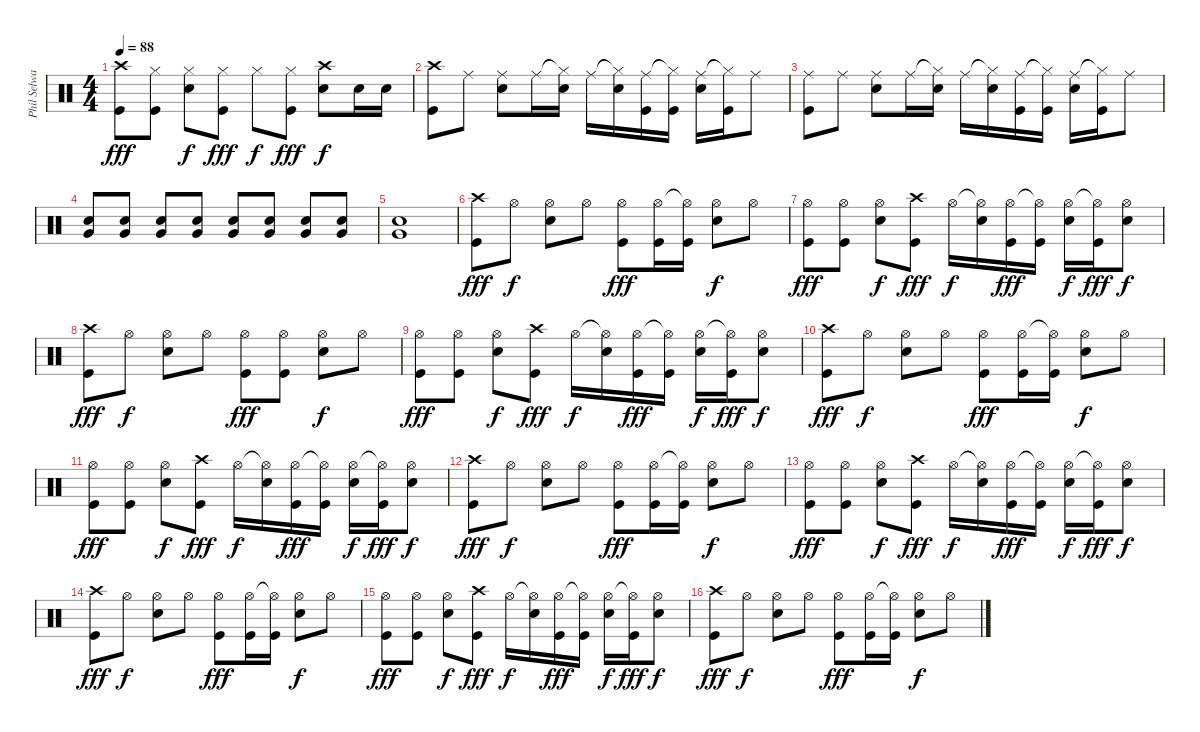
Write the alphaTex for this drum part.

\track ("Phil Selway" "Phil Selwa") {instrument percussion}
\staff {score}
\articulation defaults
\ts (4 4)
\tempo 88
\clef neutral
\ks c
("Crash high (hit)" "Kick (hit)").8{dy fff} ("Hi-Hat (closed)" "Kick (hit)").8 ("Hi-Hat (closed)" "Snare (hit) 2").8{dy f} ("Hi-Hat (closed)" "Kick (hit)").8{dy fff} "Hi-Hat (closed)".8{dy f} ("Hi-Hat (closed)" "Kick (hit)").8{dy fff} ("Crash high (hit)" "Snare (hit) 2").8{dy f} "Snare (hit) 2".16 "Snare (hit) 2".16 |
("Crash high (hit)" "Kick (hit)").8 "Ride (middle)".8 ("Ride (middle)" "Snare (hit) 2").8 "Ride (middle)".16 ("Hi-Hat (closed)"{t} "Snare (hit) 2").16 "Ride (middle)".16 ("Hi-Hat (closed)"{t} "Snare (hit) 2").16 ("Ride (middle)" "Kick (hit)").16 ("Hi-Hat (closed)"{t} "Kick (hit)").16 ("Ride (middle)" "Snare (hit) 2").16 ("Hi-Hat (closed)"{t} "Kick (hit)").16 "Ride (middle)".8 |
("Ride (middle)" "Kick (hit)").8 "Ride (middle)".8 ("Ride (middle)" "Snare (hit) 2").8 "Ride (middle)".16 ("Hi-Hat (closed)"{t} "Snare (hit) 2").16 "Ride (middle)".16 ("Hi-Hat (closed)"{t} "Snare (hit) 2").16 ("Ride (middle)" "Kick (hit)").16 ("Hi-Hat (closed)"{t} "Kick (hit)").16 ("Ride (middle)" "Snare (hit) 2").16 ("Hi-Hat (closed)"{t} "Kick (hit)").16 "Ride (middle)".8 |
("Snare (hit) 2" "Very Low Tom (hit)").8 ("Snare (hit) 2" "Very Low Tom (hit)").8 ("Snare (hit) 2" "Very Low Tom (hit)").8 ("Snare (hit) 2" "Very Low Tom (hit)").8 ("Snare (hit) 2" "Very Low Tom (hit)").8 ("Snare (hit) 2" "Very Low Tom (hit)").8 ("Snare (hit) 2" "Very Low Tom (hit)").8 ("Snare (hit) 2" "Very Low Tom (hit)").8 |
("Snare (hit) 2" "Very Low Tom (hit)").1 |
("Crash high (hit)" "Kick (hit)").8{dy fff} "Hi-Hat (open)".8{dy f} ("Hi-Hat (open)" "Snare (hit) 2").8 "Hi-Hat (open)".8 ("Hi-Hat (open)" "Kick (hit)").8{dy fff} ("Hi-Hat (open)" "Kick (hit)").16 ("Hi-Hat (open)"{t} "Kick (hit)").16 ("Hi-Hat (open)" "Snare (hit) 2").8{dy f} "Hi-Hat (open)".8 |
("Hi-Hat (open)" "Kick (hit)").8{dy fff} ("Hi-Hat (open)" "Kick (hit)").8 ("Hi-Hat (open)" "Snare (hit) 2").8{dy f} ("Crash high (hit)" "Kick (hit)").8{dy fff} "Hi-Hat (open)".16{dy f} ("Hi-Hat (open)"{t} "Snare (hit) 2").16 ("Hi-Hat (open)" "Kick (hit)").16{dy fff} ("Hi-Hat (open)"{t} "Kick (hit)").16 ("Hi-Hat (open)" "Snare (hit) 2").16{dy f} ("Hi-Hat (open)"{t} "Kick (hit)").16{dy fff} ("Hi-Hat (open)" "Snare (hit) 2").8{dy f} |
("Crash high (hit)" "Kick (hit)").8{dy fff} "Hi-Hat (open)".8{dy f} ("Hi-Hat (open)" "Snare (hit) 2").8 "Hi-Hat (open)".8 ("Hi-Hat (open)" "Kick (hit)").8{dy fff} ("Hi-Hat (open)" "Kick (hit)").8 ("Hi-Hat (open)" "Snare (hit) 2").8{dy f} "Hi-Hat (open)".8 |
("Hi-Hat (open)" "Kick (hit)").8{dy fff} ("Hi-Hat (open)" "Kick (hit)").8 ("Hi-Hat (open)" "Snare (hit) 2").8{dy f} ("Crash high (hit)" "Kick (hit)").8{dy fff} "Hi-Hat (open)".16{dy f} ("Hi-Hat (open)"{t} "Snare (hit) 2").16 ("Hi-Hat (open)" "Kick (hit)").16{dy fff} ("Hi-Hat (open)"{t} "Kick (hit)").16 ("Hi-Hat (open)" "Snare (hit) 2").16{dy f} ("Hi-Hat (open)"{t} "Kick (hit)").16{dy fff} ("Hi-Hat (open)" "Snare (hit) 2").8{dy f} |
("Crash high (hit)" "Kick (hit)").8{dy fff} "Hi-Hat (open)".8{dy f} ("Hi-Hat (open)" "Snare (hit) 2").8 "Hi-Hat (open)".8 ("Hi-Hat (open)" "Kick (hit)").8{dy fff} ("Hi-Hat (open)" "Kick (hit)").16 ("Hi-Hat (open)"{t} "Kick (hit)").16 ("Hi-Hat (open)" "Snare (hit) 2").8{dy f} "Hi-Hat (open)".8 |
("Hi-Hat (open)" "Kick (hit)").8{dy fff} ("Hi-Hat (open)" "Kick (hit)").8 ("Hi-Hat (open)" "Snare (hit) 2").8{dy f} ("Crash high (hit)" "Kick (hit)").8{dy fff} "Hi-Hat (open)".16{dy f} ("Hi-Hat (open)"{t} "Snare (hit) 2").16 ("Hi-Hat (open)" "Kick (hit)").16{dy fff} ("Hi-Hat (open)"{t} "Kick (hit)").16 ("Hi-Hat (open)" "Snare (hit) 2").16{dy f} ("Hi-Hat (open)"{t} "Kick (hit)").16{dy fff} ("Hi-Hat (open)" "Snare (hit) 2").8{dy f} |
("Crash high (hit)" "Kick (hit)").8{dy fff} "Hi-Hat (open)".8{dy f} ("Hi-Hat (open)" "Snare (hit) 2").8 "Hi-Hat (open)".8 ("Hi-Hat (open)" "Kick (hit)").8{dy fff} ("Hi-Hat (open)" "Kick (hit)").16 ("Hi-Hat (open)"{t} "Kick (hit)").16 ("Hi-Hat (open)" "Snare (hit) 2").8{dy f} "Hi-Hat (open)".8 |
("Hi-Hat (open)" "Kick (hit)").8{dy fff} ("Hi-Hat (open)" "Kick (hit)").8 ("Hi-Hat (open)" "Snare (hit) 2").8{dy f} ("Crash high (hit)" "Kick (hit)").8{dy fff} "Hi-Hat (open)".16{dy f} ("Hi-Hat (open)"{t} "Snare (hit) 2").16 ("Hi-Hat (open)" "Kick (hit)").16{dy fff} ("Hi-Hat (open)"{t} "Kick (hit)").16 ("Hi-Hat (open)" "Snare (hit) 2").16{dy f} ("Hi-Hat (open)"{t} "Kick (hit)").16{dy fff} ("Hi-Hat (open)" "Snare (hit) 2").8{dy f} |
("Crash high (hit)" "Kick (hit)").8{dy fff} "Hi-Hat (open)".8{dy f} ("Hi-Hat (open)" "Snare (hit) 2").8 "Hi-Hat (open)".8 ("Hi-Hat (open)" "Kick (hit)").8{dy fff} ("Hi-Hat (open)" "Kick (hit)").16 ("Hi-Hat (open)"{t} "Kick (hit)").16 ("Hi-Hat (open)" "Snare (hit) 2").8{dy f} "Hi-Hat (open)".8 |
("Hi-Hat (open)" "Kick (hit)").8{dy fff} ("Hi-Hat (open)" "Kick (hit)").8 ("Hi-Hat (open)" "Snare (hit) 2").8{dy f} ("Crash high (hit)" "Kick (hit)").8{dy fff} "Hi-Hat (open)".16{dy f} ("Hi-Hat (open)"{t} "Snare (hit) 2").16 ("Hi-Hat (open)" "Kick (hit)").16{dy fff} ("Hi-Hat (open)"{t} "Kick (hit)").16 ("Hi-Hat (open)" "Snare (hit) 2").16{dy f} ("Hi-Hat (open)"{t} "Kick (hit)").16{dy fff} ("Hi-Hat (open)" "Snare (hit) 2").8{dy f} |
("Crash high (hit)" "Kick (hit)").8{dy fff} "Hi-Hat (open)".8{dy f} ("Hi-Hat (open)" "Snare (hit) 2").8 "Hi-Hat (open)".8 ("Hi-Hat (open)" "Kick (hit)").8{dy fff} ("Hi-Hat (open)" "Kick (hit)").16 ("Hi-Hat (open)"{t} "Kick (hit)").16 ("Hi-Hat (open)" "Snare (hit) 2").8{dy f} "Hi-Hat (open)".8
